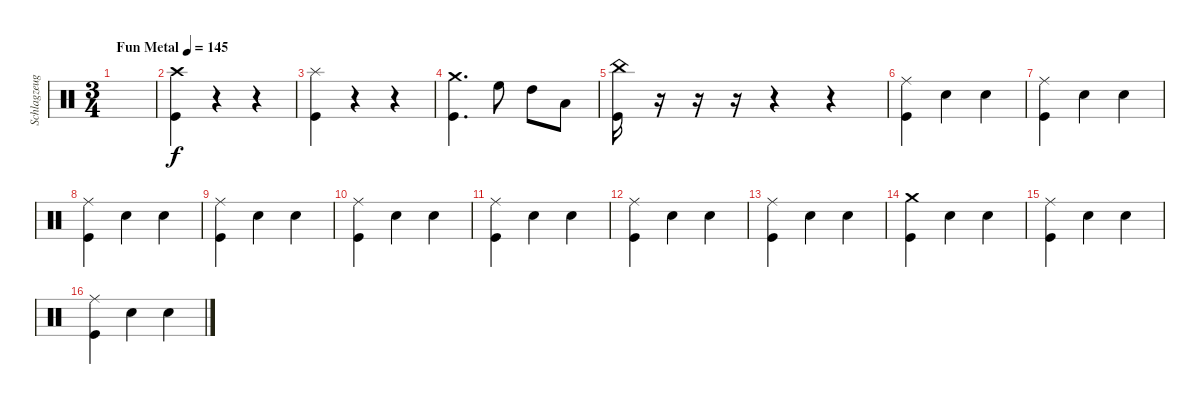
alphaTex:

\track ("Schlagzeug" "Schlagzeug") {instrument percussion}
\staff {score}
\articulation defaults
\ts (3 4)
\tempo (145 "Fun Metal")
\clef neutral
\ks c
|
("Crash high (hit)" "Kick (hit)").4 r.4 r.4 |
("Splash (hit)" "Kick (hit)").4 r.4 r.4 |
("Crash medium (hit)" "Kick (hit)").4{d} "High Floor Tom (hit)".8 "High Tom (hit)".8 "Low Tom (hit)".8 |
("China (hit)" "Kick (hit)").16 r.16 r.16 r.16 r.4 r.4 |
("Ride (middle)" "Kick (hit)").4 "Snare (hit) 2".4 "Snare (hit) 2".4 |
("Ride (middle)" "Kick (hit)").4 "Snare (hit) 2".4 "Snare (hit) 2".4 |
("Ride (middle)" "Kick (hit)").4 "Snare (hit) 2".4 "Snare (hit) 2".4 |
("Ride (middle)" "Kick (hit)").4 "Snare (hit) 2".4 "Snare (hit) 2".4 |
("Ride (middle)" "Kick (hit)").4 "Snare (hit) 2".4 "Snare (hit) 2".4 |
("Ride (middle)" "Kick (hit)").4 "Snare (hit) 2".4 "Snare (hit) 2".4 |
("Ride (middle)" "Kick (hit)").4 "Snare (hit) 2".4 "Snare (hit) 2".4 |
("Ride (middle)" "Kick (hit)").4 "Snare (hit) 2".4 "Snare (hit) 2".4 |
("Crash medium (hit)" "Kick (hit)").4 "Snare (hit) 2".4 "Snare (hit) 2".4 |
("Ride (middle)" "Kick (hit)").4 "Snare (hit) 2".4 "Snare (hit) 2".4 |
("Ride (middle)" "Kick (hit)").4 "Snare (hit) 2".4 "Snare (hit) 2".4
